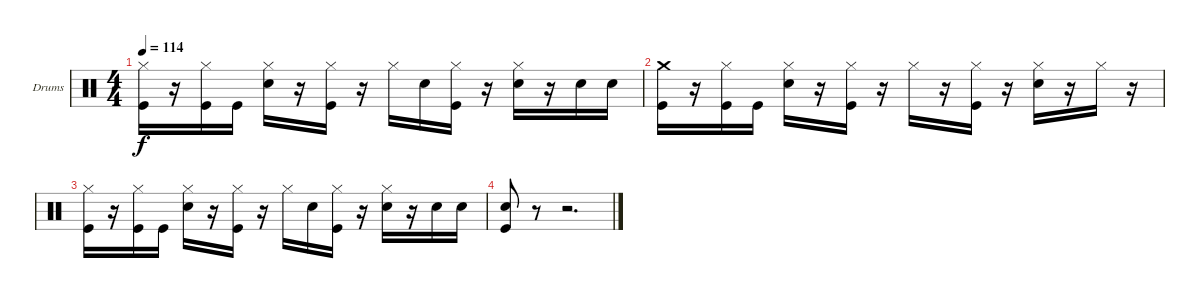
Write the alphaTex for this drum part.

\bracketExtendMode groupsimilarinstruments
\firstSystemTrackNameOrientation horizontal
\otherSystemsTrackNameOrientation horizontal
\track ("Drums" "Drums") {instrument percussion}
\staff {score}
\articulation defaults
\ts (4 4)
\tempo 114
\clef neutral
\ks c
("Hi-Hat (closed)" "Kick (hit)").16{dy f} r.16 ("Hi-Hat (closed)" "Kick (hit)").16 "Kick (hit)".16 ("Hi-Hat (closed)" "Snare (hit) 2").16 r.16 ("Hi-Hat (closed)" "Kick (hit)").16 r.16 "Hi-Hat (closed)".16 "Snare (hit) 2".16 ("Hi-Hat (closed)" "Kick (hit)").16 r.16 ("Hi-Hat (closed)" "Snare (hit) 2").16 r.16 "Snare (hit) 2".16 "Snare (hit) 2".16 |
("Crash medium (hit)" "Kick (hit)").16 r.16 ("Hi-Hat (closed)" "Kick (hit)").16 "Kick (hit)".16 ("Hi-Hat (closed)" "Snare (hit) 2").16 r.16 ("Hi-Hat (closed)" "Kick (hit)").16 r.16 "Hi-Hat (closed)".16 r.16 ("Hi-Hat (closed)" "Kick (hit)").16 r.16 ("Hi-Hat (closed)" "Snare (hit) 2").16 r.16 "Hi-Hat (closed)".16 r.16 |
("Hi-Hat (closed)" "Kick (hit)").16 r.16 ("Hi-Hat (closed)" "Kick (hit)").16 "Kick (hit)".16 ("Hi-Hat (closed)" "Snare (hit) 2").16 r.16 ("Hi-Hat (closed)" "Kick (hit)").16 r.16 "Hi-Hat (closed)".16 "Snare (hit) 2".16 ("Hi-Hat (closed)" "Kick (hit)").16 r.16 ("Hi-Hat (closed)" "Snare (hit) 2").16 r.16 "Snare (hit) 2".16 "Snare (hit) 2".16 |
("Snare (hit) 2" "Kick (hit)").8 r.8 r.2{d}
